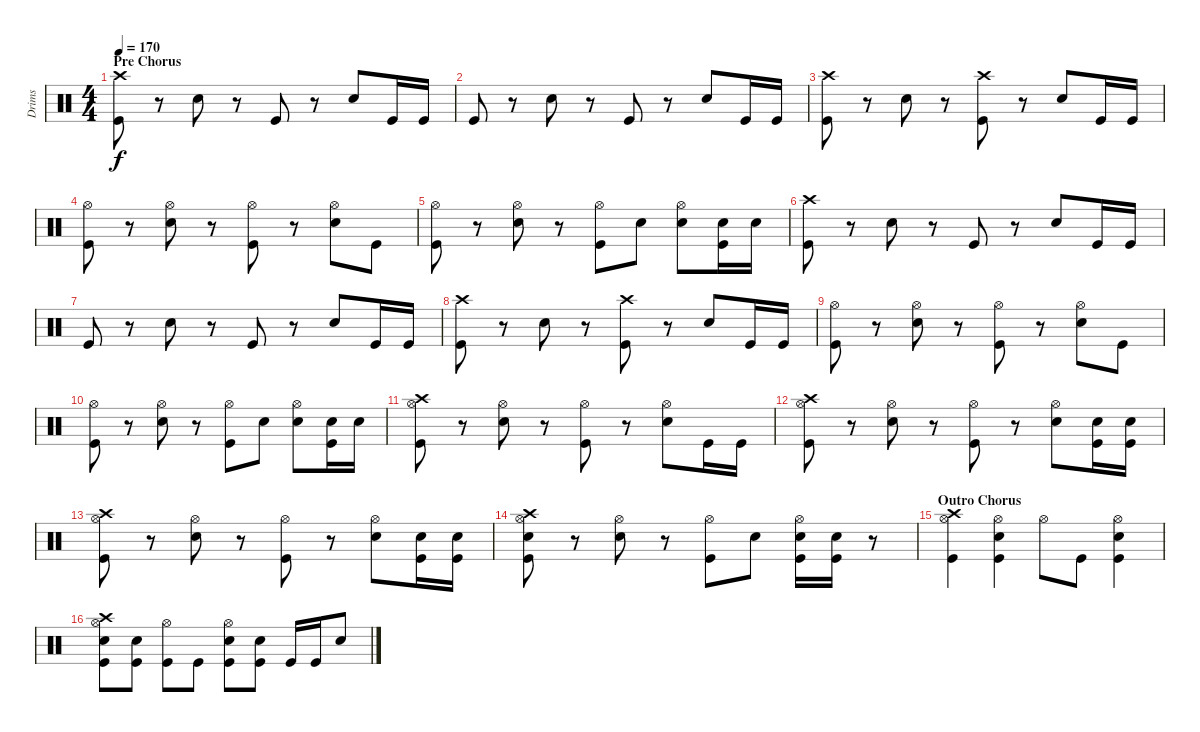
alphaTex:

\track ("Drims" "Drims") {instrument percussion}
\staff {score}
\articulation defaults
\ts (4 4)
\section ("" "Pre Chorus")
\tempo 170
\clef neutral
\ks c
("Crash high (hit)" "Kick (hit)").8{dy f} r.8 "Electric Snare (hit)".8 r.8 "Kick (hit)".8 r.8 "Electric Snare (hit)".8 "Kick (hit)".16 "Kick (hit)".16 |
"Kick (hit)".8 r.8 "Electric Snare (hit)".8 r.8 "Kick (hit)".8 r.8 "Electric Snare (hit)".8 "Kick (hit)".16 "Kick (hit)".16 |
("Crash high (hit)" "Kick (hit)").8 r.8 "Electric Snare (hit)".8 r.8 ("Crash high (hit)" "Kick (hit)").8 r.8 "Electric Snare (hit)".8 "Kick (hit)".16 "Kick (hit)".16 |
("Hi-Hat (open)" "Kick (hit)").8 r.8 ("Hi-Hat (open)" "Electric Snare (hit)").8 r.8 ("Hi-Hat (open)" "Kick (hit)").8 r.8 ("Hi-Hat (open)" "Electric Snare (hit)").8 "Kick (hit)".8 |
("Hi-Hat (open)" "Kick (hit)").8 r.8 ("Hi-Hat (open)" "Electric Snare (hit)").8 r.8 ("Hi-Hat (open)" "Kick (hit)").8 "Electric Snare (hit)".8 ("Hi-Hat (open)" "Electric Snare (hit)").8 ("Electric Snare (hit)" "Kick (hit)").16 "Electric Snare (hit)".16 |
("Crash high (hit)" "Kick (hit)").8 r.8 "Electric Snare (hit)".8 r.8 "Kick (hit)".8 r.8 "Electric Snare (hit)".8 "Kick (hit)".16 "Kick (hit)".16 |
"Kick (hit)".8 r.8 "Electric Snare (hit)".8 r.8 "Kick (hit)".8 r.8 "Electric Snare (hit)".8 "Kick (hit)".16 "Kick (hit)".16 |
("Crash high (hit)" "Kick (hit)").8 r.8 "Electric Snare (hit)".8 r.8 ("Crash high (hit)" "Kick (hit)").8 r.8 "Electric Snare (hit)".8 "Kick (hit)".16 "Kick (hit)".16 |
("Hi-Hat (open)" "Kick (hit)").8 r.8 ("Hi-Hat (open)" "Electric Snare (hit)").8 r.8 ("Hi-Hat (open)" "Kick (hit)").8 r.8 ("Hi-Hat (open)" "Electric Snare (hit)").8 "Kick (hit)".8 |
("Hi-Hat (open)" "Kick (hit)").8 r.8 ("Hi-Hat (open)" "Electric Snare (hit)").8 r.8 ("Hi-Hat (open)" "Kick (hit)").8 "Electric Snare (hit)".8 ("Hi-Hat (open)" "Electric Snare (hit)").8 ("Electric Snare (hit)" "Kick (hit)").16 "Electric Snare (hit)".16 |
("Hi-Hat (open)" "Crash high (hit)" "Kick (hit)").8 r.8 ("Hi-Hat (open)" "Electric Snare (hit)").8 r.8 ("Hi-Hat (open)" "Kick (hit)").8 r.8 ("Hi-Hat (open)" "Electric Snare (hit)").8 "Kick (hit)".16 "Kick (hit)".16 |
("Hi-Hat (open)" "Crash high (hit)" "Kick (hit)").8 r.8 ("Hi-Hat (open)" "Electric Snare (hit)").8 r.8 ("Hi-Hat (open)" "Kick (hit)").8 r.8 ("Hi-Hat (open)" "Electric Snare (hit)").8 ("Electric Snare (hit)" "Kick (hit)").16 ("Electric Snare (hit)" "Kick (hit)").16 |
("Hi-Hat (open)" "Crash high (hit)" "Kick (hit)").8 r.8 ("Hi-Hat (open)" "Electric Snare (hit)").8 r.8 ("Hi-Hat (open)" "Kick (hit)").8 r.8 ("Hi-Hat (open)" "Electric Snare (hit)").8 ("Electric Snare (hit)" "Kick (hit)").16 ("Electric Snare (hit)" "Kick (hit)").16 |
("Hi-Hat (open)" "Crash high (hit)" "Electric Snare (hit)" "Kick (hit)").8 r.8 ("Hi-Hat (open)" "Electric Snare (hit)").8 r.8 ("Hi-Hat (open)" "Kick (hit)").8 "Electric Snare (hit)".8 ("Hi-Hat (open)" "Electric Snare (hit)" "Kick (hit)").16 ("Electric Snare (hit)" "Kick (hit)").16 r.8 |
\section ("" "Outro Chorus")
("Hi-Hat (open)" "Crash high (hit)" "Kick (hit)").4 ("Hi-Hat (open)" "Electric Snare (hit)" "Kick (hit)").4 "Hi-Hat (open)".8 "Kick (hit)".8 ("Hi-Hat (open)" "Electric Snare (hit)" "Kick (hit)").4 |
("Hi-Hat (open)" "Crash high (hit)" "Electric Snare (hit)" "Kick (hit)").8 ("Electric Snare (hit)" "Kick (hit)").8 ("Hi-Hat (open)" "Kick (hit)").8 "Kick (hit)".8 ("Hi-Hat (open)" "Electric Snare (hit)" "Kick (hit)").8 ("Electric Snare (hit)" "Kick (hit)").8 "Kick (hit)".16 "Kick (hit)".16 "Electric Snare (hit)".8
